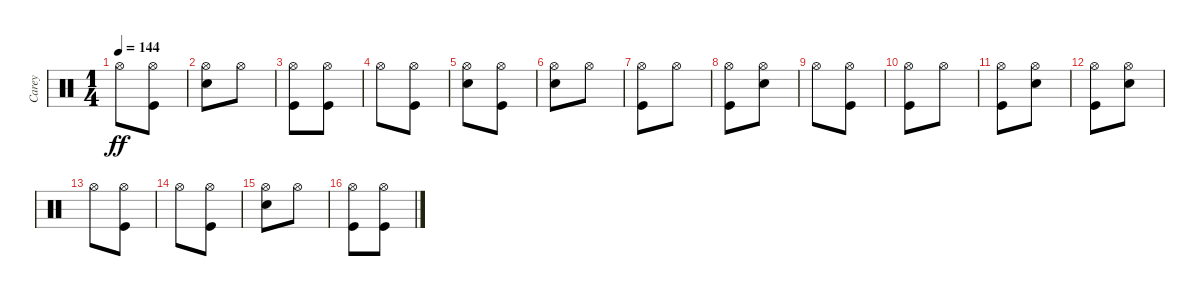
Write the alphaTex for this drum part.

\track ("Carey" "Carey") {instrument percussion}
\staff {score}
\articulation defaults
\ts (1 4)
\tempo 144
\clef neutral
\ks c "Hi-Hat (open)".8{dy ff}
("Kick (hit)" "Hi-Hat (open)").8 |
("Snare (hit) 2" "Hi-Hat (open)").8 "Hi-Hat (open)".8 |
("Kick (hit)" "Hi-Hat (open)").8 ("Kick (hit)" "Hi-Hat (open)").8 |
"Hi-Hat (open)".8 ("Kick (hit)" "Hi-Hat (open)").8 |
("Snare (hit) 2" "Hi-Hat (open)").8 ("Kick (hit)" "Hi-Hat (open)").8 |
("Snare (hit) 2" "Hi-Hat (open)").8 "Hi-Hat (open)".8 |
("Kick (hit)" "Hi-Hat (open)").8 "Hi-Hat (open)".8 |
("Kick (hit)" "Hi-Hat (open)").8 ("Snare (hit) 2" "Hi-Hat (open)").8 |
"Hi-Hat (open)".8 ("Kick (hit)" "Hi-Hat (open)").8 |
("Kick (hit)" "Hi-Hat (open)").8 "Hi-Hat (open)".8 |
("Kick (hit)" "Hi-Hat (open)").8 ("Snare (hit) 2" "Hi-Hat (open)").8 |
("Kick (hit)" "Hi-Hat (open)").8 ("Snare (hit) 2" "Hi-Hat (open)").8 |
"Hi-Hat (open)".8 ("Kick (hit)" "Hi-Hat (open)").8 |
"Hi-Hat (open)".8 ("Kick (hit)" "Hi-Hat (open)").8 |
("Snare (hit) 2" "Hi-Hat (open)").8 "Hi-Hat (open)".8 |
("Kick (hit)" "Hi-Hat (open)").8 ("Kick (hit)" "Hi-Hat (open)").8
